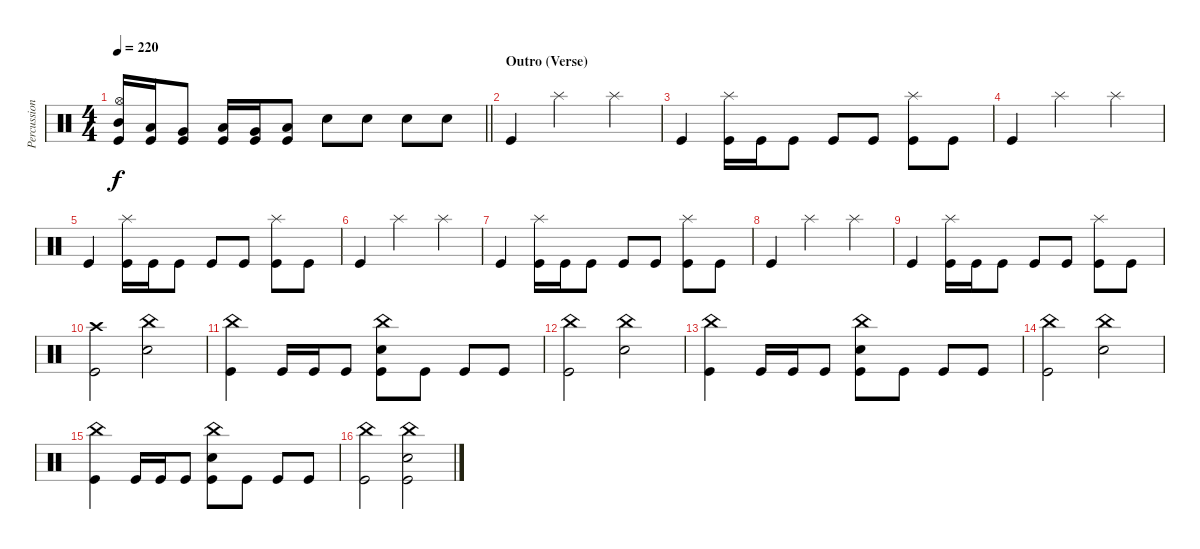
\track ("Percussion" "Percussion") {instrument percussion}
\staff {score}
\articulation defaults
\ts (4 4)
\tempo 220
\clef neutral
\barLineRight lightlight
\ks c
("Kick (hit)" "Hi-Hat (open)" "Mid Tom (hit)").16{dy f} ("Kick (hit)" "Low Tom (hit)").16 ("Kick (hit)" "Very Low Tom (hit)").8 ("Kick (hit)" "Low Tom (hit)").16 ("Kick (hit)" "Very Low Tom (hit)").16 ("Kick (hit)" "Low Floor Tom (hit)").8 "Snare (hit) 2".8 "Snare (hit) 2".8 "Snare (hit) 2".8 "Snare (hit) 2".8 |
\section ("" "Outro (Verse)")
"Kick (hit)".4 "Splash (hit)".2 "Splash (hit)".4 |
"Kick (hit)".4 ("Kick (hit)" "Splash (hit)").16 "Kick (hit)".16 "Kick (hit)".8 "Kick (hit)".8 "Kick (hit)".8 ("Kick (hit)" "Splash (hit)").8 "Kick (hit)".8 |
"Kick (hit)".4 "Splash (hit)".2 "Splash (hit)".4 |
"Kick (hit)".4 ("Kick (hit)" "Splash (hit)").16 "Kick (hit)".16 "Kick (hit)".8 "Kick (hit)".8 "Kick (hit)".8 ("Kick (hit)" "Splash (hit)").8 "Kick (hit)".8 |
"Kick (hit)".4 "Splash (hit)".2 "Splash (hit)".4 |
"Kick (hit)".4 ("Kick (hit)" "Splash (hit)").16 "Kick (hit)".16 "Kick (hit)".8 "Kick (hit)".8 "Kick (hit)".8 ("Kick (hit)" "Splash (hit)").8 "Kick (hit)".8 |
"Kick (hit)".4 "Splash (hit)".2 "Splash (hit)".4 |
"Kick (hit)".4 ("Kick (hit)" "Splash (hit)").16 "Kick (hit)".16 "Kick (hit)".8 "Kick (hit)".8 "Kick (hit)".8 ("Kick (hit)" "Splash (hit)").8 "Kick (hit)".8 |
("Kick (hit)" "Crash high (hit)").2 ("Snare (hit) 2" "China (hit)").2 |
("Kick (hit)" "China (hit)").4 "Kick (hit)".16 "Kick (hit)".16 "Kick (hit)".8 ("Kick (hit)" "Snare (hit) 2" "China (hit)").8 "Kick (hit)".8 "Kick (hit)".8 "Kick (hit)".8 |
("Kick (hit)" "China (hit)").2 ("Snare (hit) 2" "China (hit)").2 |
("Kick (hit)" "China (hit)").4 "Kick (hit)".16 "Kick (hit)".16 "Kick (hit)".8 ("Kick (hit)" "Snare (hit) 2" "China (hit)").8 "Kick (hit)".8 "Kick (hit)".8 "Kick (hit)".8 |
("Kick (hit)" "China (hit)").2 ("Snare (hit) 2" "China (hit)").2 |
("Kick (hit)" "China (hit)").4 "Kick (hit)".16 "Kick (hit)".16 "Kick (hit)".8 ("Kick (hit)" "Snare (hit) 2" "China (hit)").8 "Kick (hit)".8 "Kick (hit)".8 "Kick (hit)".8 |
("Kick (hit)" "China (hit)").2 ("Kick (hit)" "Snare (hit) 2" "China (hit)").2
